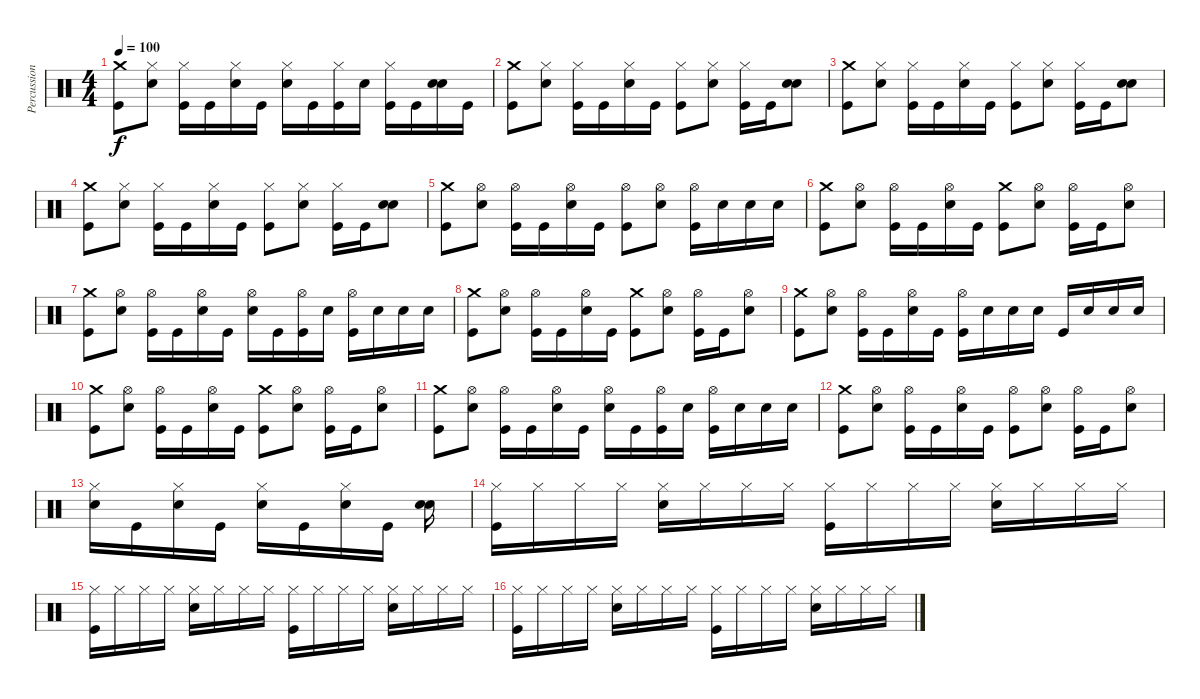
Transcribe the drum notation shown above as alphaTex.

\track ("Percussion" "Percussion") {instrument percussion}
\staff {score}
\articulation defaults
\ts (4 4)
\tempo 100
\clef neutral
\ks c
("Crash medium (hit)" "Kick (hit)").8{dy f} ("Hi-Hat (closed)" "Snare (hit) 2").8 ("Hi-Hat (closed)" "Kick (hit)").16 "Kick (hit)".16 ("Hi-Hat (closed)" "Snare (hit) 2").16 "Kick (hit)".16 ("Hi-Hat (closed)" "Snare (hit) 2").16 "Kick (hit)".16 ("Hi-Hat (closed)" "Kick (hit)").16 "Snare (hit) 2".16 ("Hi-Hat (closed)" "Kick (hit)").16 "Kick (hit)".16 ("Snare (hit) 2" "Snare (hit) 2").16 "Kick (hit)".16 |
("Crash medium (hit)" "Kick (hit)").8 ("Hi-Hat (closed)" "Snare (hit) 2").8 ("Hi-Hat (closed)" "Kick (hit)").16 "Kick (hit)".16 ("Hi-Hat (closed)" "Snare (hit) 2").16 "Kick (hit)".16 ("Hi-Hat (closed)" "Kick (hit)").8 ("Hi-Hat (closed)" "Snare (hit) 2").8 ("Hi-Hat (closed)" "Kick (hit)").16 "Kick (hit)".16 ("Snare (hit) 2" "Snare (hit) 2").8 |
("Crash medium (hit)" "Kick (hit)").8 ("Hi-Hat (closed)" "Snare (hit) 2").8 ("Hi-Hat (closed)" "Kick (hit)").16 "Kick (hit)".16 ("Hi-Hat (closed)" "Snare (hit) 2").16 "Kick (hit)".16 ("Hi-Hat (closed)" "Kick (hit)").8 ("Hi-Hat (closed)" "Snare (hit) 2").8 ("Hi-Hat (closed)" "Kick (hit)").16 "Kick (hit)".16 ("Snare (hit) 2" "Snare (hit) 2").8 |
("Crash medium (hit)" "Kick (hit)").8 ("Hi-Hat (closed)" "Snare (hit) 2").8 ("Hi-Hat (closed)" "Kick (hit)").16 "Kick (hit)".16 ("Hi-Hat (closed)" "Snare (hit) 2").16 "Kick (hit)".16 ("Hi-Hat (closed)" "Kick (hit)").8 ("Hi-Hat (closed)" "Snare (hit) 2").8 ("Hi-Hat (closed)" "Kick (hit)").16 "Kick (hit)".16 ("Snare (hit) 2" "Snare (hit) 2").8 |
("Crash medium (hit)" "Kick (hit)").8 ("Hi-Hat (open)" "Snare (hit) 2").8 ("Hi-Hat (open)" "Kick (hit)").16 "Kick (hit)".16 ("Hi-Hat (open)" "Snare (hit) 2").16 "Kick (hit)".16 ("Hi-Hat (open)" "Kick (hit)").8 ("Hi-Hat (open)" "Snare (hit) 2").8 ("Hi-Hat (open)" "Kick (hit)").16 "Snare (hit) 2".16 "Snare (hit) 2".16 "Snare (hit) 2".16 |
("Crash medium (hit)" "Kick (hit)").8 ("Hi-Hat (open)" "Snare (hit) 2").8 ("Hi-Hat (open)" "Kick (hit)").16 "Kick (hit)".16 ("Hi-Hat (open)" "Snare (hit) 2").16 "Kick (hit)".16 ("Crash medium (hit)" "Kick (hit)").8 ("Hi-Hat (open)" "Snare (hit) 2").8 ("Hi-Hat (open)" "Kick (hit)").16 "Kick (hit)".16 ("Hi-Hat (open)" "Snare (hit) 2").8 |
("Crash medium (hit)" "Kick (hit)").8 ("Hi-Hat (open)" "Snare (hit) 2").8 ("Hi-Hat (open)" "Kick (hit)").16 "Kick (hit)".16 ("Hi-Hat (open)" "Snare (hit) 2").16 "Kick (hit)".16 ("Hi-Hat (open)" "Snare (hit) 2").16 "Kick (hit)".16 ("Hi-Hat (open)" "Kick (hit)").16 "Snare (hit) 2".16 ("Hi-Hat (open)" "Kick (hit)").16 "Snare (hit) 2".16 "Snare (hit) 2".16 "Snare (hit) 2".16 |
("Crash medium (hit)" "Kick (hit)").8 ("Hi-Hat (open)" "Snare (hit) 2").8 ("Hi-Hat (open)" "Kick (hit)").16 "Kick (hit)".16 ("Hi-Hat (open)" "Snare (hit) 2").16 "Kick (hit)".16 ("Crash medium (hit)" "Kick (hit)").8 ("Hi-Hat (open)" "Snare (hit) 2").8 ("Hi-Hat (open)" "Kick (hit)").16 "Kick (hit)".16 ("Hi-Hat (open)" "Snare (hit) 2").8 |
("Crash medium (hit)" "Kick (hit)").8 ("Hi-Hat (open)" "Snare (hit) 2").8 ("Hi-Hat (open)" "Kick (hit)").16 "Kick (hit)".16 ("Hi-Hat (open)" "Snare (hit) 2").16 "Kick (hit)".16 ("Hi-Hat (open)" "Kick (hit)").16 "Snare (hit) 2".16 "Snare (hit) 2".16 "Snare (hit) 2".16 "Kick (hit)".16 "Snare (hit) 2".16 "Snare (hit) 2".16 "Snare (hit) 2".16 |
("Crash medium (hit)" "Kick (hit)").8 ("Hi-Hat (open)" "Snare (hit) 2").8 ("Hi-Hat (open)" "Kick (hit)").16 "Kick (hit)".16 ("Hi-Hat (open)" "Snare (hit) 2").16 "Kick (hit)".16 ("Crash medium (hit)" "Kick (hit)").8 ("Hi-Hat (open)" "Snare (hit) 2").8 ("Hi-Hat (open)" "Kick (hit)").16 "Kick (hit)".16 ("Hi-Hat (open)" "Snare (hit) 2").8 |
("Crash medium (hit)" "Kick (hit)").8 ("Hi-Hat (open)" "Snare (hit) 2").8 ("Hi-Hat (open)" "Kick (hit)").16 "Kick (hit)".16 ("Hi-Hat (open)" "Snare (hit) 2").16 "Kick (hit)".16 ("Hi-Hat (open)" "Snare (hit) 2").16 "Kick (hit)".16 ("Hi-Hat (open)" "Kick (hit)").16 "Snare (hit) 2".16 ("Hi-Hat (open)" "Kick (hit)").16 "Snare (hit) 2".16 "Snare (hit) 2".16 "Snare (hit) 2".16 |
("Crash medium (hit)" "Kick (hit)").8 ("Hi-Hat (open)" "Snare (hit) 2").8 ("Hi-Hat (open)" "Kick (hit)").16 "Kick (hit)".16 ("Hi-Hat (open)" "Snare (hit) 2").16 "Kick (hit)".16 ("Hi-Hat (open)" "Kick (hit)").8 ("Hi-Hat (open)" "Snare (hit) 2").8 ("Hi-Hat (open)" "Kick (hit)").16 "Kick (hit)".16 ("Hi-Hat (open)" "Snare (hit) 2").8 |
("Hi-Hat (closed)" "Snare (hit) 2").16 "Kick (hit)".16 ("Hi-Hat (closed)" "Snare (hit) 2").16 "Kick (hit)".16 ("Hi-Hat (closed)" "Snare (hit) 2").16 "Kick (hit)".16 ("Hi-Hat (closed)" "Snare (hit) 2").16 "Kick (hit)".16 ("Snare (hit) 2" "Snare (hit) 2").16 |
("Hi-Hat (closed)" "Kick (hit)").16 "Hi-Hat (closed)".16 "Hi-Hat (closed)".16 "Hi-Hat (closed)".16 ("Hi-Hat (closed)" "Snare (hit) 2").16 "Hi-Hat (closed)".16 "Hi-Hat (closed)".16 "Hi-Hat (closed)".16 ("Hi-Hat (closed)" "Kick (hit)").16 "Hi-Hat (closed)".16 "Hi-Hat (closed)".16 "Hi-Hat (closed)".16 ("Hi-Hat (closed)" "Snare (hit) 2").16 "Hi-Hat (closed)".16 "Hi-Hat (closed)".16 "Hi-Hat (closed)".16 |
("Hi-Hat (closed)" "Kick (hit)").16 "Hi-Hat (closed)".16 "Hi-Hat (closed)".16 "Hi-Hat (closed)".16 ("Hi-Hat (closed)" "Snare (hit) 2").16 "Hi-Hat (closed)".16 "Hi-Hat (closed)".16 "Hi-Hat (closed)".16 ("Hi-Hat (closed)" "Kick (hit)").16 "Hi-Hat (closed)".16 "Hi-Hat (closed)".16 "Hi-Hat (closed)".16 ("Hi-Hat (closed)" "Snare (hit) 2").16 "Hi-Hat (closed)".16 "Hi-Hat (closed)".16 "Hi-Hat (closed)".16 |
("Hi-Hat (closed)" "Kick (hit)").16 "Hi-Hat (closed)".16 "Hi-Hat (closed)".16 "Hi-Hat (closed)".16 ("Hi-Hat (closed)" "Snare (hit) 2").16 "Hi-Hat (closed)".16 "Hi-Hat (closed)".16 "Hi-Hat (closed)".16 ("Hi-Hat (closed)" "Kick (hit)").16 "Hi-Hat (closed)".16 "Hi-Hat (closed)".16 "Hi-Hat (closed)".16 ("Hi-Hat (closed)" "Snare (hit) 2").16 "Hi-Hat (closed)".16 "Hi-Hat (closed)".16 "Hi-Hat (closed)".16
